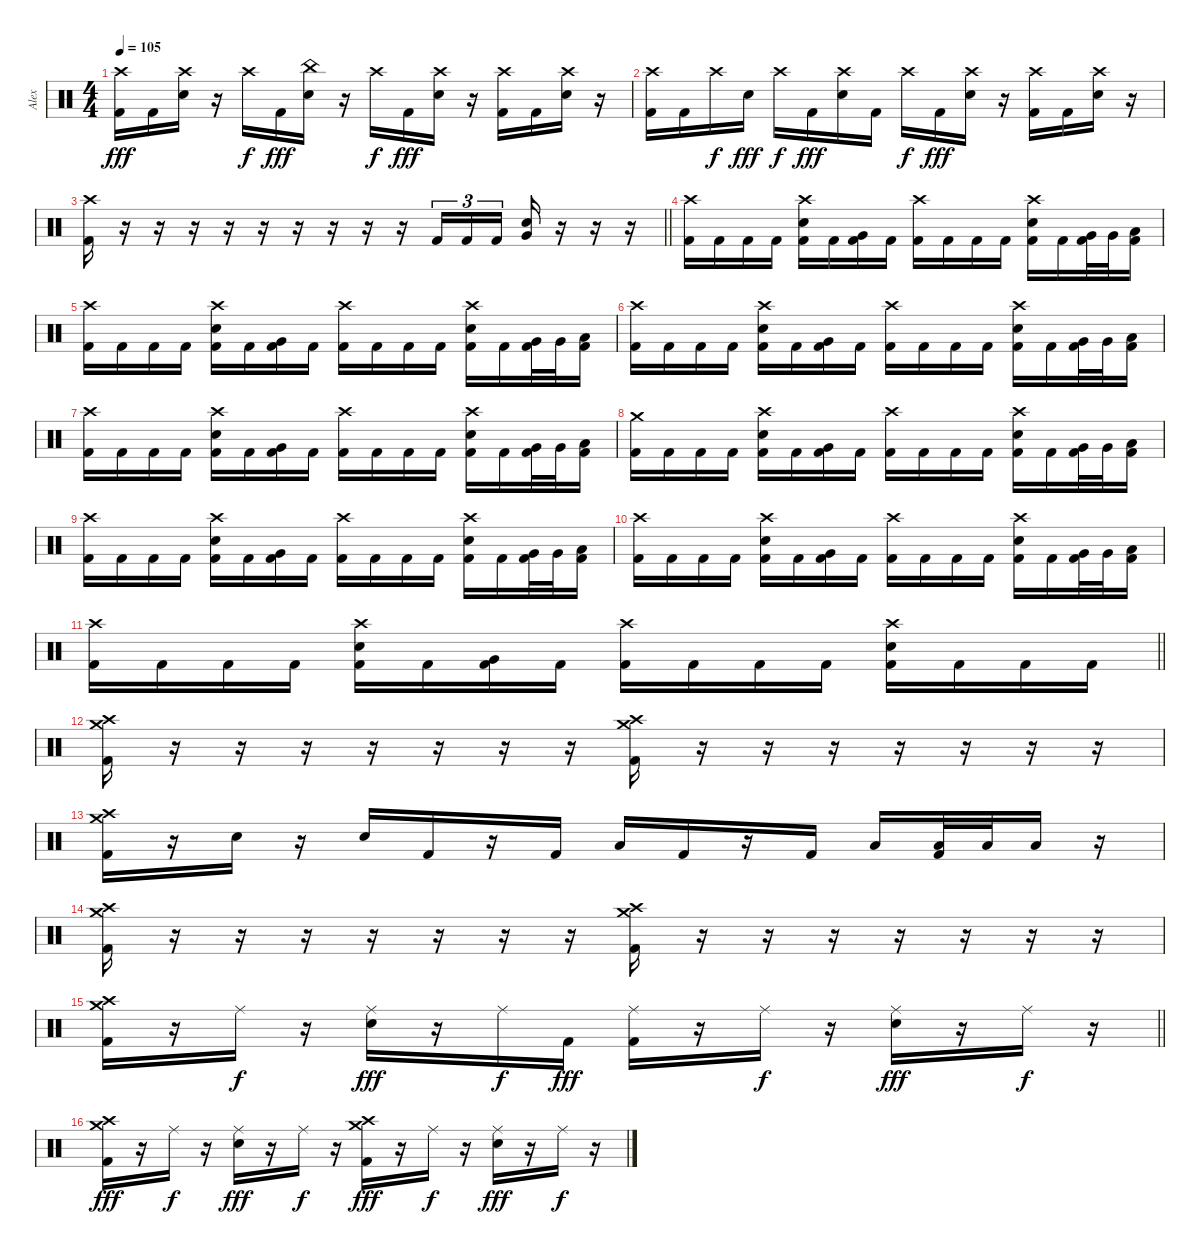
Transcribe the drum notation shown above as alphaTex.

\track ("Alex" "Alex") {instrument percussion}
\staff {score}
\articulation defaults
\ts (4 4)
\tempo 105
\clef neutral
\ks c
("Crash high (hit)" "Kick (hit) 2").16{dy fff} "Kick (hit) 2".16 ("Crash high (hit)" "Electric Snare (hit)").16 r.16 "Crash high (hit)".16{dy f} "Kick (hit) 2".16{dy fff} ("China (hit)" "Electric Snare (hit)").16 r.16 "Crash high (hit)".16{dy f} "Kick (hit) 2".16{dy fff} ("Crash high (hit)" "Electric Snare (hit)").16 r.16 ("Crash high (hit)" "Kick (hit) 2").16 "Kick (hit) 2".16 ("Crash high (hit)" "Electric Snare (hit)").16 r.16 |
("Crash high (hit)" "Kick (hit) 2").16 "Kick (hit) 2".16 "Crash high (hit)".16{dy f} "Electric Snare (hit)".16{dy fff} "Crash high (hit)".16{dy f} "Kick (hit) 2".16{dy fff} ("Crash high (hit)" "Electric Snare (hit)").16 "Kick (hit) 2".16 "Crash high (hit)".16{dy f} "Kick (hit) 2".16{dy fff} ("Crash high (hit)" "Electric Snare (hit)").16 r.16 ("Crash high (hit)" "Kick (hit) 2").16 "Kick (hit) 2".16 ("Crash high (hit)" "Electric Snare (hit)").16 r.16 |
\barLineRight lightlight
("Crash high (hit)" "Kick (hit) 2").16 r.16 r.16 r.16 r.16 r.16 r.16 r.16 r.16 r.16 "Kick (hit) 2".16{tu (3 2)} "Kick (hit) 2".16{tu (3 2)} "Kick (hit) 2".16{tu (3 2)} ("Very Low Tom (hit)" "Electric Snare (hit)").16 r.16 r.16 r.16 |
\section ("" "")
("Crash high (hit)" "Kick (hit) 2").16 "Kick (hit) 2".16 "Kick (hit) 2".16 "Kick (hit) 2".16 ("Crash high (hit)" "Electric Snare (hit)" "Kick (hit) 2").16 "Kick (hit) 2".16 ("Very Low Tom (hit)" "Kick (hit) 2").16 "Kick (hit) 2".16 ("Crash high (hit)" "Kick (hit) 2").16 "Kick (hit) 2".16 "Kick (hit) 2".16 "Kick (hit) 2".16 ("Crash high (hit)" "Electric Snare (hit)" "Kick (hit) 2").16 "Kick (hit) 2".16 ("Very Low Tom (hit)" "Kick (hit) 2").32 "Very Low Tom (hit)".32 ("Low Floor Tom (hit)" "Kick (hit) 2").16 |
("Crash high (hit)" "Kick (hit) 2").16 "Kick (hit) 2".16 "Kick (hit) 2".16 "Kick (hit) 2".16 ("Crash high (hit)" "Electric Snare (hit)" "Kick (hit) 2").16 "Kick (hit) 2".16 ("Very Low Tom (hit)" "Kick (hit) 2").16 "Kick (hit) 2".16 ("Crash high (hit)" "Kick (hit) 2").16 "Kick (hit) 2".16 "Kick (hit) 2".16 "Kick (hit) 2".16 ("Crash high (hit)" "Electric Snare (hit)" "Kick (hit) 2").16 "Kick (hit) 2".16 ("Very Low Tom (hit)" "Kick (hit) 2").32 "Very Low Tom (hit)".32 ("Low Floor Tom (hit)" "Kick (hit) 2").16 |
("Crash high (hit)" "Kick (hit) 2").16 "Kick (hit) 2".16 "Kick (hit) 2".16 "Kick (hit) 2".16 ("Crash high (hit)" "Electric Snare (hit)" "Kick (hit) 2").16 "Kick (hit) 2".16 ("Very Low Tom (hit)" "Kick (hit) 2").16 "Kick (hit) 2".16 ("Crash high (hit)" "Kick (hit) 2").16 "Kick (hit) 2".16 "Kick (hit) 2".16 "Kick (hit) 2".16 ("Crash high (hit)" "Electric Snare (hit)" "Kick (hit) 2").16 "Kick (hit) 2".16 ("Very Low Tom (hit)" "Kick (hit) 2").32 "Very Low Tom (hit)".32 ("Low Floor Tom (hit)" "Kick (hit) 2").16 |
("Crash high (hit)" "Kick (hit) 2").16 "Kick (hit) 2".16 "Kick (hit) 2".16 "Kick (hit) 2".16 ("Crash high (hit)" "Electric Snare (hit)" "Kick (hit) 2").16 "Kick (hit) 2".16 ("Very Low Tom (hit)" "Kick (hit) 2").16 "Kick (hit) 2".16 ("Crash high (hit)" "Kick (hit) 2").16 "Kick (hit) 2".16 "Kick (hit) 2".16 "Kick (hit) 2".16 ("Crash high (hit)" "Electric Snare (hit)" "Kick (hit) 2").16 "Kick (hit) 2".16 ("Very Low Tom (hit)" "Kick (hit) 2").32 "Very Low Tom (hit)".32 ("Low Floor Tom (hit)" "Kick (hit) 2").16 |
("Crash medium (hit)" "Kick (hit) 2").16 "Kick (hit) 2".16 "Kick (hit) 2".16 "Kick (hit) 2".16 ("Crash high (hit)" "Electric Snare (hit)" "Kick (hit) 2").16 "Kick (hit) 2".16 ("Very Low Tom (hit)" "Kick (hit) 2").16 "Kick (hit) 2".16 ("Crash high (hit)" "Kick (hit) 2").16 "Kick (hit) 2".16 "Kick (hit) 2".16 "Kick (hit) 2".16 ("Crash high (hit)" "Electric Snare (hit)" "Kick (hit) 2").16 "Kick (hit) 2".16 ("Very Low Tom (hit)" "Kick (hit) 2").32 "Very Low Tom (hit)".32 ("Low Floor Tom (hit)" "Kick (hit) 2").16 |
("Crash high (hit)" "Kick (hit) 2").16 "Kick (hit) 2".16 "Kick (hit) 2".16 "Kick (hit) 2".16 ("Crash high (hit)" "Electric Snare (hit)" "Kick (hit) 2").16 "Kick (hit) 2".16 ("Very Low Tom (hit)" "Kick (hit) 2").16 "Kick (hit) 2".16 ("Crash high (hit)" "Kick (hit) 2").16 "Kick (hit) 2".16 "Kick (hit) 2".16 "Kick (hit) 2".16 ("Crash high (hit)" "Electric Snare (hit)" "Kick (hit) 2").16 "Kick (hit) 2".16 ("Very Low Tom (hit)" "Kick (hit) 2").32 "Very Low Tom (hit)".32 ("Low Floor Tom (hit)" "Kick (hit) 2").16 |
("Crash high (hit)" "Kick (hit) 2").16 "Kick (hit) 2".16 "Kick (hit) 2".16 "Kick (hit) 2".16 ("Crash high (hit)" "Electric Snare (hit)" "Kick (hit) 2").16 "Kick (hit) 2".16 ("Very Low Tom (hit)" "Kick (hit) 2").16 "Kick (hit) 2".16 ("Crash high (hit)" "Kick (hit) 2").16 "Kick (hit) 2".16 "Kick (hit) 2".16 "Kick (hit) 2".16 ("Crash high (hit)" "Electric Snare (hit)" "Kick (hit) 2").16 "Kick (hit) 2".16 ("Very Low Tom (hit)" "Kick (hit) 2").32 "Very Low Tom (hit)".32 ("Low Floor Tom (hit)" "Kick (hit) 2").16 |
\barLineRight lightlight
("Crash high (hit)" "Kick (hit) 2").16 "Kick (hit) 2".16 "Kick (hit) 2".16 "Kick (hit) 2".16 ("Crash high (hit)" "Electric Snare (hit)" "Kick (hit) 2").16 "Kick (hit) 2".16 ("Very Low Tom (hit)" "Kick (hit) 2").16 "Kick (hit) 2".16 ("Crash high (hit)" "Kick (hit) 2").16 "Kick (hit) 2".16 "Kick (hit) 2".16 "Kick (hit) 2".16 ("Crash high (hit)" "Electric Snare (hit)" "Kick (hit) 2").16 "Kick (hit) 2".16 "Kick (hit) 2".16 "Kick (hit) 2".16 |
\section ("" "")
("Crash high (hit)" "Crash medium (hit)" "Kick (hit) 2").16 r.16 r.16 r.16 r.16 r.16 r.16 r.16 ("Crash high (hit)" "Crash medium (hit)" "Kick (hit) 2").16 r.16 r.16 r.16 r.16 r.16 r.16 r.16 |
("Crash high (hit)" "Crash medium (hit)" "Kick (hit) 2").16 r.16 "Electric Snare (hit)".16 r.16 "Electric Snare (hit)".16 "Kick (hit) 2".16 r.16 "Kick (hit) 2".16 "Low Floor Tom (hit)".16 "Kick (hit) 2".16 r.16 "Kick (hit) 2".16 "Low Floor Tom (hit)".16 ("Low Floor Tom (hit)" "Kick (hit) 2").32 "Low Floor Tom (hit)".32 "Low Floor Tom (hit)".16 r.16 |
("Crash high (hit)" "Crash medium (hit)" "Kick (hit) 2").16 r.16 r.16 r.16 r.16 r.16 r.16 r.16 ("Crash high (hit)" "Crash medium (hit)" "Kick (hit) 2").16 r.16 r.16 r.16 r.16 r.16 r.16 r.16 |
\barLineRight lightlight
("Crash high (hit)" "Crash medium (hit)" "Kick (hit) 2").16 r.16 "Ride (middle)".16{dy f} r.16 ("Ride (middle)" "Electric Snare (hit)").16{dy fff} r.16 "Ride (middle)".16{dy f} "Kick (hit) 2".16{dy fff} ("Ride (middle)" "Kick (hit) 2").16 r.16 "Ride (middle)".16{dy f} r.16 ("Ride (middle)" "Electric Snare (hit)").16{dy fff} r.16 "Ride (middle)".16{dy f} r.16 |
\section ("" "")
("Crash high (hit)" "Crash medium (hit)" "Kick (hit) 2").16{dy fff} r.16 "Ride (middle)".16{dy f} r.16 ("Ride (middle)" "Electric Snare (hit)").16{dy fff} r.16 "Ride (middle)".16{dy f} r.16 ("Crash high (hit)" "Crash medium (hit)" "Kick (hit) 2").16{dy fff} r.16 "Ride (middle)".16{dy f} r.16 ("Ride (middle)" "Electric Snare (hit)").16{dy fff} r.16 "Ride (middle)".16{dy f} r.16
